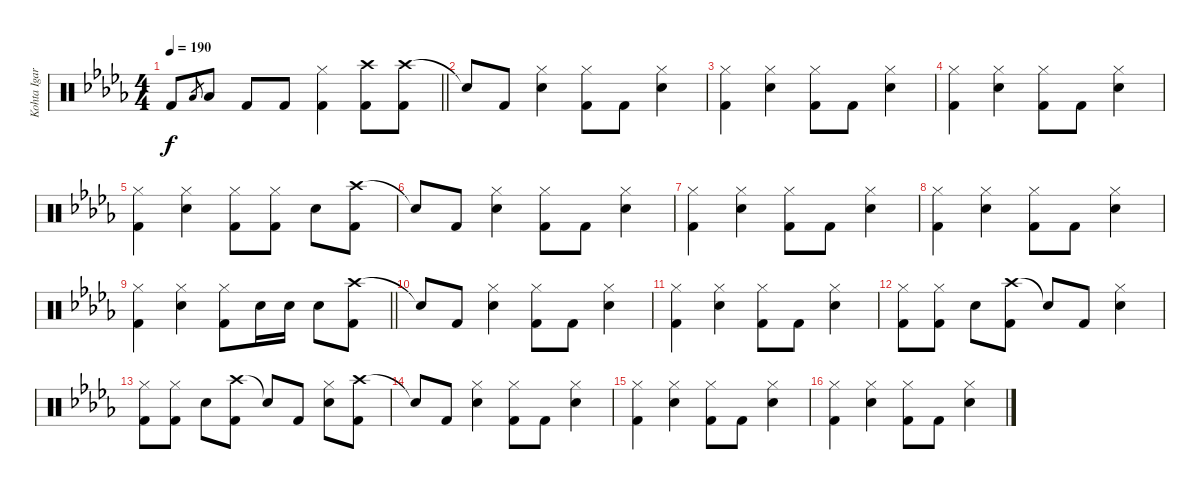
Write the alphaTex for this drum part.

\track ("Kohta Igarashi" "Kohta Igar") {instrument percussion}
\staff {score}
\articulation defaults
\ts (4 4)
\tempo 190
\clef neutral
\barLineRight lightlight
\ks db "Kick (hit) 2".8{dy f} "Low Floor Tom (hit)".8{gr} "Low Floor Tom (hit)".8 "Kick (hit) 2".8 "Kick (hit) 2".8
("Hi-Hat (closed)" "Kick (hit) 2").4 ("Crash high (hit)" "Kick (hit) 2").8 ("Crash high (hit)" "Kick (hit) 2").8 |
"Snare (hit)"{t}.8 "Kick (hit) 2".8 ("Hi-Hat (closed)" "Electric Snare (hit)").4 ("Hi-Hat (closed)" "Kick (hit) 2").8 "Kick (hit) 2".8 ("Hi-Hat (closed)" "Electric Snare (hit)").4 |
("Hi-Hat (closed)" "Kick (hit) 2").4 ("Hi-Hat (closed)" "Electric Snare (hit)").4 ("Hi-Hat (closed)" "Kick (hit) 2").8 "Kick (hit) 2".8 ("Hi-Hat (closed)" "Electric Snare (hit)").4 |
("Hi-Hat (closed)" "Kick (hit) 2").4 ("Hi-Hat (closed)" "Electric Snare (hit)").4 ("Hi-Hat (closed)" "Kick (hit) 2").8 "Kick (hit) 2".8 ("Hi-Hat (closed)" "Electric Snare (hit)").4 |
("Hi-Hat (closed)" "Kick (hit) 2").4 ("Hi-Hat (closed)" "Electric Snare (hit)").4 ("Hi-Hat (closed)" "Kick (hit) 2").8 ("Hi-Hat (closed)" "Kick (hit) 2").8 "Electric Snare (hit)".8 ("Crash high (hit)" "Kick (hit) 2").8 |
"Snare (hit)"{t}.8 "Kick (hit) 2".8 ("Hi-Hat (closed)" "Electric Snare (hit)").4 ("Hi-Hat (closed)" "Kick (hit) 2").8 "Kick (hit) 2".8 ("Hi-Hat (closed)" "Electric Snare (hit)").4 |
("Hi-Hat (closed)" "Kick (hit) 2").4 ("Hi-Hat (closed)" "Electric Snare (hit)").4 ("Hi-Hat (closed)" "Kick (hit) 2").8 "Kick (hit) 2".8 ("Hi-Hat (closed)" "Electric Snare (hit)").4 |
("Hi-Hat (closed)" "Kick (hit) 2").4 ("Hi-Hat (closed)" "Electric Snare (hit)").4 ("Hi-Hat (closed)" "Kick (hit) 2").8 "Kick (hit) 2".8 ("Hi-Hat (closed)" "Electric Snare (hit)").4 |
\barLineRight lightlight
("Hi-Hat (closed)" "Kick (hit) 2").4 ("Hi-Hat (closed)" "Electric Snare (hit)").4 ("Hi-Hat (closed)" "Kick (hit) 2").8 "Electric Snare (hit)".16 "Electric Snare (hit)".16 "Electric Snare (hit)".8 ("Crash high (hit)" "Kick (hit) 2").8 |
"Snare (hit)"{t}.8 "Kick (hit) 2".8 ("Hi-Hat (closed)" "Electric Snare (hit)").4 ("Hi-Hat (closed)" "Kick (hit) 2").8 "Kick (hit) 2".8 ("Hi-Hat (closed)" "Electric Snare (hit)").4 |
("Hi-Hat (closed)" "Kick (hit) 2").4 ("Hi-Hat (closed)" "Electric Snare (hit)").4 ("Hi-Hat (closed)" "Kick (hit) 2").8 "Kick (hit) 2".8 ("Hi-Hat (closed)" "Electric Snare (hit)").4 |
("Hi-Hat (closed)" "Kick (hit) 2").8 ("Hi-Hat (closed)" "Kick (hit) 2").8 "Electric Snare (hit)".8 ("Crash high (hit)" "Kick (hit) 2").8 "Snare (hit)"{t}.8 "Kick (hit) 2".8 ("Hi-Hat (closed)" "Electric Snare (hit)").4 |
("Hi-Hat (closed)" "Kick (hit) 2").8 ("Hi-Hat (closed)" "Kick (hit) 2").8 "Electric Snare (hit)".8 ("Crash high (hit)" "Kick (hit) 2").8 "Snare (hit)"{t}.8 "Kick (hit) 2".8 ("Hi-Hat (closed)" "Electric Snare (hit)").8 ("Crash high (hit)" "Kick (hit) 2").8 |
"Snare (hit)"{t}.8 "Kick (hit) 2".8 ("Hi-Hat (closed)" "Electric Snare (hit)").4 ("Hi-Hat (closed)" "Kick (hit) 2").8 "Kick (hit) 2".8 ("Hi-Hat (closed)" "Electric Snare (hit)").4 |
("Hi-Hat (closed)" "Kick (hit) 2").4 ("Hi-Hat (closed)" "Electric Snare (hit)").4 ("Hi-Hat (closed)" "Kick (hit) 2").8 "Kick (hit) 2".8 ("Hi-Hat (closed)" "Electric Snare (hit)").4 |
("Hi-Hat (closed)" "Kick (hit) 2").4 ("Hi-Hat (closed)" "Electric Snare (hit)").4 ("Hi-Hat (closed)" "Kick (hit) 2").8 "Kick (hit) 2".8 ("Hi-Hat (closed)" "Electric Snare (hit)").4
